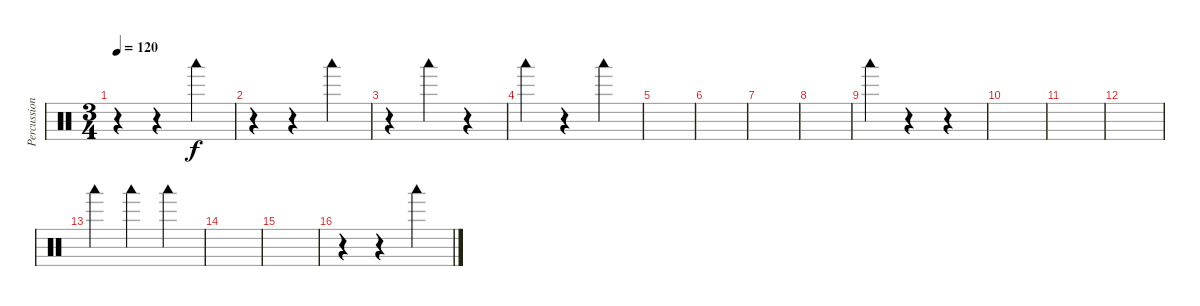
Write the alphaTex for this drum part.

\track ("Percussion" "Percussion") {instrument percussion}
\staff {score}
\articulation defaults
\ts (3 4)
\tempo 120
\clef neutral
\ks c
r.4{dy f} r.4 "Woodblock low (hit)".4 |
r.4 r.4 "Woodblock low (hit)".4 |
r.4 "Woodblock low (hit)".4 r.4 |
"Woodblock low (hit)".4 r.4 "Woodblock low (hit)".4 |
|
|
|
|
"Woodblock low (hit)".4 r.4 r.4 |
|
|
|
"Woodblock low (hit)".4 "Woodblock low (hit)".4 "Woodblock low (hit)".4 |
|
|
r.4 r.4 "Woodblock low (hit)".4
